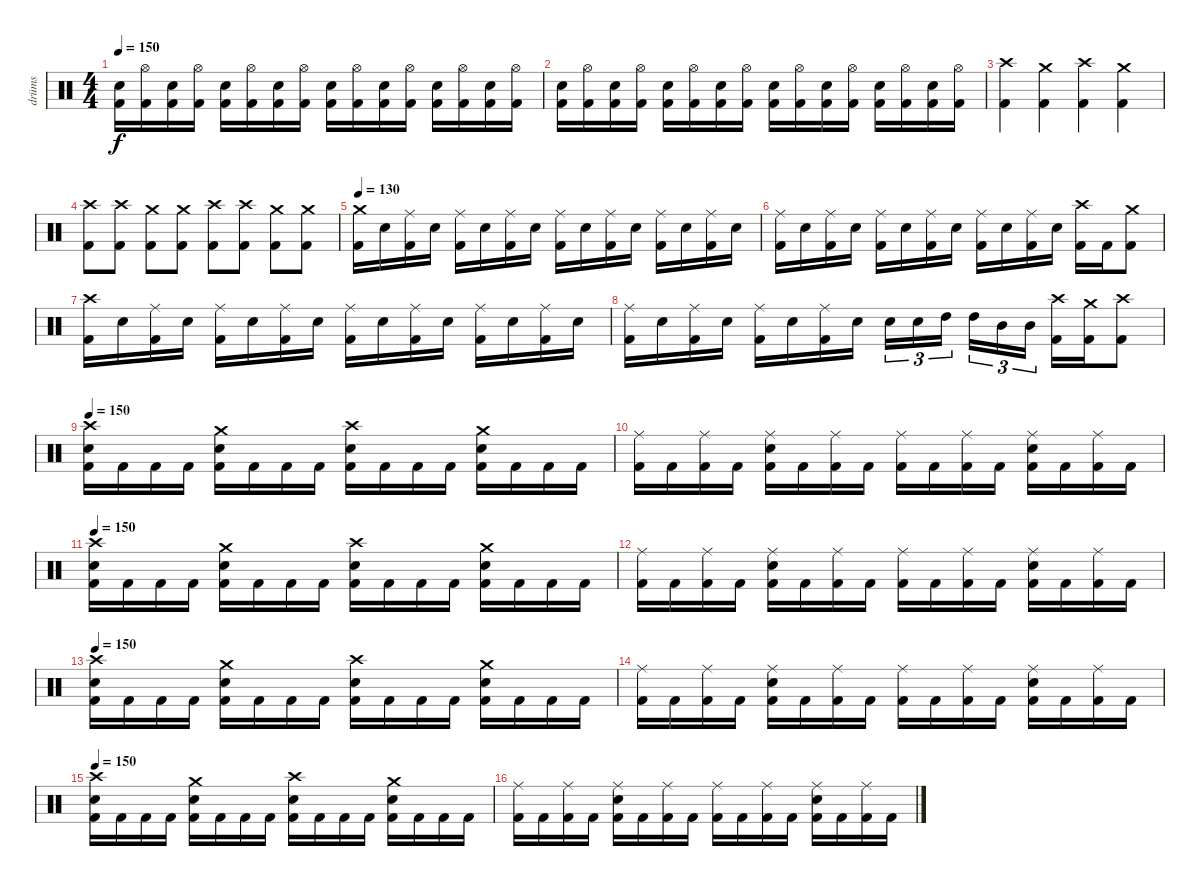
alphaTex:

\track ("drüms" "drüms") {instrument percussion}
\staff {score}
\articulation defaults
\ts (4 4)
\tempo 150
\clef neutral
\ks c
("Electric Snare (hit)" "Kick (hit) 2").16{dy f} ("Hi-Hat (open)" "Kick (hit) 2").16 ("Electric Snare (hit)" "Kick (hit) 2").16 ("Hi-Hat (open)" "Kick (hit) 2").16 ("Electric Snare (hit)" "Kick (hit) 2").16 ("Hi-Hat (open)" "Kick (hit) 2").16 ("Electric Snare (hit)" "Kick (hit) 2").16 ("Hi-Hat (open)" "Kick (hit) 2").16 ("Electric Snare (hit)" "Kick (hit) 2").16 ("Hi-Hat (open)" "Kick (hit) 2").16 ("Electric Snare (hit)" "Kick (hit) 2").16 ("Hi-Hat (open)" "Kick (hit) 2").16 ("Electric Snare (hit)" "Kick (hit) 2").16 ("Hi-Hat (open)" "Kick (hit) 2").16 ("Electric Snare (hit)" "Kick (hit) 2").16 ("Hi-Hat (open)" "Kick (hit) 2").16 |
("Electric Snare (hit)" "Kick (hit) 2").16 ("Hi-Hat (open)" "Kick (hit) 2").16 ("Electric Snare (hit)" "Kick (hit) 2").16 ("Hi-Hat (open)" "Kick (hit) 2").16 ("Electric Snare (hit)" "Kick (hit) 2").16 ("Hi-Hat (open)" "Kick (hit) 2").16 ("Electric Snare (hit)" "Kick (hit) 2").16 ("Hi-Hat (open)" "Kick (hit) 2").16 ("Electric Snare (hit)" "Kick (hit) 2").16 ("Hi-Hat (open)" "Kick (hit) 2").16 ("Electric Snare (hit)" "Kick (hit) 2").16 ("Hi-Hat (open)" "Kick (hit) 2").16 ("Electric Snare (hit)" "Kick (hit) 2").16 ("Hi-Hat (open)" "Kick (hit) 2").16 ("Electric Snare (hit)" "Kick (hit) 2").16 ("Hi-Hat (open)" "Kick (hit) 2").16 |
("Crash high (hit)" "Kick (hit) 2").4 ("Crash medium (hit)" "Kick (hit) 2").4 ("Crash high (hit)" "Kick (hit) 2").4 ("Crash medium (hit)" "Kick (hit) 2").4 |
("Crash high (hit)" "Kick (hit) 2").8 ("Crash high (hit)" "Kick (hit) 2").8 ("Crash medium (hit)" "Kick (hit) 2").8 ("Crash medium (hit)" "Kick (hit) 2").8 ("Crash high (hit)" "Kick (hit) 2").8 ("Crash high (hit)" "Kick (hit) 2").8 ("Crash medium (hit)" "Kick (hit) 2").8 ("Crash medium (hit)" "Kick (hit) 2").8 |
\tempo 130
("Kick (hit) 2" "Crash medium (hit)").16 "Electric Snare (hit)".16 ("Kick (hit) 2" "Ride (middle)").16 "Electric Snare (hit)".16 ("Kick (hit) 2" "Ride (middle)").16 "Electric Snare (hit)".16 ("Kick (hit) 2" "Ride (middle)").16 "Electric Snare (hit)".16 ("Kick (hit) 2" "Ride (middle)").16 "Electric Snare (hit)".16 ("Kick (hit) 2" "Ride (middle)").16 "Electric Snare (hit)".16 ("Kick (hit) 2" "Ride (middle)").16 "Electric Snare (hit)".16 ("Kick (hit) 2" "Ride (middle)").16 "Electric Snare (hit)".16 |
("Kick (hit) 2" "Ride (middle)").16 "Electric Snare (hit)".16 ("Kick (hit) 2" "Ride (middle)").16 "Electric Snare (hit)".16 ("Kick (hit) 2" "Ride (middle)").16 "Electric Snare (hit)".16 ("Kick (hit) 2" "Ride (middle)").16 "Electric Snare (hit)".16 ("Kick (hit) 2" "Ride (middle)").16 "Electric Snare (hit)".16 ("Kick (hit) 2" "Ride (middle)").16 "Electric Snare (hit)".16 ("Kick (hit) 2" "Crash high (hit)").16 "Kick (hit) 2".16 ("Kick (hit) 2" "Crash medium (hit)").8 |
("Kick (hit) 2" "Crash high (hit)").16 "Electric Snare (hit)".16 ("Kick (hit) 2" "Ride (middle)").16 "Electric Snare (hit)".16 ("Kick (hit) 2" "Ride (middle)").16 "Electric Snare (hit)".16 ("Kick (hit) 2" "Ride (middle)").16 "Electric Snare (hit)".16 ("Kick (hit) 2" "Ride (middle)").16 "Electric Snare (hit)".16 ("Kick (hit) 2" "Ride (middle)").16 "Electric Snare (hit)".16 ("Kick (hit) 2" "Ride (middle)").16 "Electric Snare (hit)".16 ("Kick (hit) 2" "Ride (middle)").16 "Electric Snare (hit)".16 |
("Kick (hit) 2" "Ride (middle)").16 "Electric Snare (hit)".16 ("Kick (hit) 2" "Ride (middle)").16 "Electric Snare (hit)".16 ("Kick (hit) 2" "Ride (middle)").16 "Electric Snare (hit)".16 ("Kick (hit) 2" "Ride (middle)").16 "Electric Snare (hit)".16 "Electric Snare (hit)".16{tu (3 2)} "Electric Snare (hit)".16{tu (3 2)} "High Tom (hit)".16{tu (3 2)} "High Tom (hit)".16{tu (3 2)} "Mid Tom (hit)".16{tu (3 2)} "Mid Tom (hit)".16{tu (3 2)} ("Kick (hit) 2" "Crash high (hit)").16 ("Kick (hit) 2" "Crash medium (hit)").16 ("Kick (hit) 2" "Crash high (hit)").8 |
\tempo 150
("Electric Snare (hit)" "Crash high (hit)" "Kick (hit) 2").16 "Kick (hit) 2".16 "Kick (hit) 2".16 "Kick (hit) 2".16 ("Electric Snare (hit)" "Crash medium (hit)" "Kick (hit) 2").16 "Kick (hit) 2".16 "Kick (hit) 2".16 "Kick (hit) 2".16 ("Electric Snare (hit)" "Crash high (hit)" "Kick (hit) 2").16 "Kick (hit) 2".16 "Kick (hit) 2".16 "Kick (hit) 2".16 ("Electric Snare (hit)" "Crash medium (hit)" "Kick (hit) 2").16 "Kick (hit) 2".16 "Kick (hit) 2".16 "Kick (hit) 2".16 |
("Ride (middle)" "Kick (hit) 2").16 "Kick (hit) 2".16 ("Ride (middle)" "Kick (hit) 2").16 "Kick (hit) 2".16 ("Ride (middle)" "Electric Snare (hit)" "Kick (hit) 2").16 "Kick (hit) 2".16 ("Ride (middle)" "Kick (hit) 2").16 "Kick (hit) 2".16 ("Ride (middle)" "Kick (hit) 2").16 "Kick (hit) 2".16 ("Ride (middle)" "Kick (hit) 2").16 "Kick (hit) 2".16 ("Ride (middle)" "Electric Snare (hit)" "Kick (hit) 2").16 "Kick (hit) 2".16 ("Ride (middle)" "Kick (hit) 2").16 "Kick (hit) 2".16 |
\tempo 150
("Electric Snare (hit)" "Crash high (hit)" "Kick (hit) 2").16 "Kick (hit) 2".16 "Kick (hit) 2".16 "Kick (hit) 2".16 ("Electric Snare (hit)" "Crash medium (hit)" "Kick (hit) 2").16 "Kick (hit) 2".16 "Kick (hit) 2".16 "Kick (hit) 2".16 ("Electric Snare (hit)" "Crash high (hit)" "Kick (hit) 2").16 "Kick (hit) 2".16 "Kick (hit) 2".16 "Kick (hit) 2".16 ("Electric Snare (hit)" "Crash medium (hit)" "Kick (hit) 2").16 "Kick (hit) 2".16 "Kick (hit) 2".16 "Kick (hit) 2".16 |
("Ride (middle)" "Kick (hit) 2").16 "Kick (hit) 2".16 ("Ride (middle)" "Kick (hit) 2").16 "Kick (hit) 2".16 ("Ride (middle)" "Electric Snare (hit)" "Kick (hit) 2").16 "Kick (hit) 2".16 ("Ride (middle)" "Kick (hit) 2").16 "Kick (hit) 2".16 ("Ride (middle)" "Kick (hit) 2").16 "Kick (hit) 2".16 ("Ride (middle)" "Kick (hit) 2").16 "Kick (hit) 2".16 ("Ride (middle)" "Electric Snare (hit)" "Kick (hit) 2").16 "Kick (hit) 2".16 ("Ride (middle)" "Kick (hit) 2").16 "Kick (hit) 2".16 |
\tempo 150
("Electric Snare (hit)" "Crash high (hit)" "Kick (hit) 2").16 "Kick (hit) 2".16 "Kick (hit) 2".16 "Kick (hit) 2".16 ("Electric Snare (hit)" "Crash medium (hit)" "Kick (hit) 2").16 "Kick (hit) 2".16 "Kick (hit) 2".16 "Kick (hit) 2".16 ("Electric Snare (hit)" "Crash high (hit)" "Kick (hit) 2").16 "Kick (hit) 2".16 "Kick (hit) 2".16 "Kick (hit) 2".16 ("Electric Snare (hit)" "Crash medium (hit)" "Kick (hit) 2").16 "Kick (hit) 2".16 "Kick (hit) 2".16 "Kick (hit) 2".16 |
("Ride (middle)" "Kick (hit) 2").16 "Kick (hit) 2".16 ("Ride (middle)" "Kick (hit) 2").16 "Kick (hit) 2".16 ("Ride (middle)" "Electric Snare (hit)" "Kick (hit) 2").16 "Kick (hit) 2".16 ("Ride (middle)" "Kick (hit) 2").16 "Kick (hit) 2".16 ("Ride (middle)" "Kick (hit) 2").16 "Kick (hit) 2".16 ("Ride (middle)" "Kick (hit) 2").16 "Kick (hit) 2".16 ("Ride (middle)" "Electric Snare (hit)" "Kick (hit) 2").16 "Kick (hit) 2".16 ("Ride (middle)" "Kick (hit) 2").16 "Kick (hit) 2".16 |
\tempo 150
("Electric Snare (hit)" "Crash high (hit)" "Kick (hit) 2").16 "Kick (hit) 2".16 "Kick (hit) 2".16 "Kick (hit) 2".16 ("Electric Snare (hit)" "Crash medium (hit)" "Kick (hit) 2").16 "Kick (hit) 2".16 "Kick (hit) 2".16 "Kick (hit) 2".16 ("Electric Snare (hit)" "Crash high (hit)" "Kick (hit) 2").16 "Kick (hit) 2".16 "Kick (hit) 2".16 "Kick (hit) 2".16 ("Electric Snare (hit)" "Crash medium (hit)" "Kick (hit) 2").16 "Kick (hit) 2".16 "Kick (hit) 2".16 "Kick (hit) 2".16 |
("Ride (middle)" "Kick (hit) 2").16 "Kick (hit) 2".16 ("Ride (middle)" "Kick (hit) 2").16 "Kick (hit) 2".16 ("Ride (middle)" "Electric Snare (hit)" "Kick (hit) 2").16 "Kick (hit) 2".16 ("Ride (middle)" "Kick (hit) 2").16 "Kick (hit) 2".16 ("Ride (middle)" "Kick (hit) 2").16 "Kick (hit) 2".16 ("Ride (middle)" "Kick (hit) 2").16 "Kick (hit) 2".16 ("Ride (middle)" "Electric Snare (hit)" "Kick (hit) 2").16 "Kick (hit) 2".16 ("Ride (middle)" "Kick (hit) 2").16 "Kick (hit) 2".16
